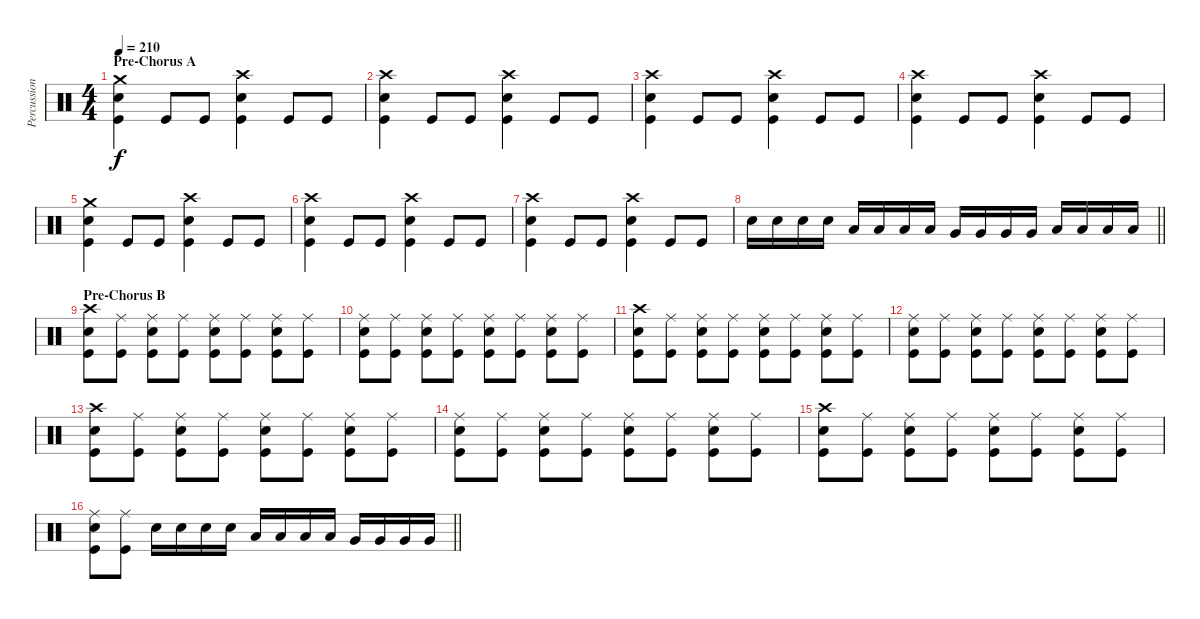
\track ("Percussion" "Percussion") {instrument percussion}
\staff {score}
\articulation defaults
\ts (4 4)
\section ("" "Pre-Chorus A")
\tempo 210
\clef neutral
\ks c
("Crash medium (hit)" "Electric Snare (hit)" "Kick (hit)").4{dy f} "Kick (hit)".8 "Kick (hit)".8 ("Crash high (hit)" "Electric Snare (hit)" "Kick (hit)").4 "Kick (hit)".8 "Kick (hit)".8 |
("Crash high (hit)" "Electric Snare (hit)" "Kick (hit)").4 "Kick (hit)".8 "Kick (hit)".8 ("Crash high (hit)" "Electric Snare (hit)" "Kick (hit)").4 "Kick (hit)".8 "Kick (hit)".8 |
("Crash high (hit)" "Electric Snare (hit)" "Kick (hit)").4 "Kick (hit)".8 "Kick (hit)".8 ("Crash high (hit)" "Electric Snare (hit)" "Kick (hit)").4 "Kick (hit)".8 "Kick (hit)".8 |
("Crash high (hit)" "Electric Snare (hit)" "Kick (hit)").4 "Kick (hit)".8 "Kick (hit)".8 ("Crash high (hit)" "Electric Snare (hit)" "Kick (hit)").4 "Kick (hit)".8 "Kick (hit)".8 |
("Crash medium (hit)" "Electric Snare (hit)" "Kick (hit)").4 "Kick (hit)".8 "Kick (hit)".8 ("Crash high (hit)" "Electric Snare (hit)" "Kick (hit)").4 "Kick (hit)".8 "Kick (hit)".8 |
("Crash high (hit)" "Electric Snare (hit)" "Kick (hit)").4 "Kick (hit)".8 "Kick (hit)".8 ("Crash high (hit)" "Electric Snare (hit)" "Kick (hit)").4 "Kick (hit)".8 "Kick (hit)".8 |
("Crash high (hit)" "Electric Snare (hit)" "Kick (hit)").4 "Kick (hit)".8 "Kick (hit)".8 ("Crash high (hit)" "Electric Snare (hit)" "Kick (hit)").4 "Kick (hit)".8 "Kick (hit)".8 |
\barLineRight lightlight "Electric Snare (hit)".16 "Electric Snare (hit)".16 "Electric Snare (hit)".16 "Electric Snare (hit)".16 "Low Tom (hit)".16 "Low Tom (hit)".16 "Low Tom (hit)".16 "Low Tom (hit)".16 "Very Low Tom (hit)".16 "Very Low Tom (hit)".16 "Very Low Tom (hit)".16 "Very Low Tom (hit)".16 "Low Floor Tom (hit)".16 "Low Floor Tom (hit)".16 "Low Floor Tom (hit)".16 "Low Floor Tom (hit)".16
|
\section ("" "Pre-Chorus B")
("Crash high (hit)" "Electric Snare (hit)" "Kick (hit)").8 ("Ride (middle)" "Kick (hit)").8 ("Ride (middle)" "Electric Snare (hit)" "Kick (hit)").8 ("Ride (middle)" "Kick (hit)").8 ("Ride (middle)" "Electric Snare (hit)" "Kick (hit)").8 ("Ride (middle)" "Kick (hit)").8 ("Ride (middle)" "Electric Snare (hit)" "Kick (hit)").8 ("Ride (middle)" "Kick (hit)").8 |
("Ride (middle)" "Electric Snare (hit)" "Kick (hit)").8 ("Ride (middle)" "Kick (hit)").8 ("Ride (middle)" "Electric Snare (hit)" "Kick (hit)").8 ("Ride (middle)" "Kick (hit)").8 ("Ride (middle)" "Electric Snare (hit)" "Kick (hit)").8 ("Ride (middle)" "Kick (hit)").8 ("Ride (middle)" "Electric Snare (hit)" "Kick (hit)").8 ("Ride (middle)" "Kick (hit)").8 |
("Crash high (hit)" "Electric Snare (hit)" "Kick (hit)").8 ("Ride (middle)" "Kick (hit)").8 ("Ride (middle)" "Electric Snare (hit)" "Kick (hit)").8 ("Ride (middle)" "Kick (hit)").8 ("Ride (middle)" "Electric Snare (hit)" "Kick (hit)").8 ("Ride (middle)" "Kick (hit)").8 ("Ride (middle)" "Electric Snare (hit)" "Kick (hit)").8 ("Ride (middle)" "Kick (hit)").8 |
("Ride (middle)" "Electric Snare (hit)" "Kick (hit)").8 ("Ride (middle)" "Kick (hit)").8 ("Ride (middle)" "Electric Snare (hit)" "Kick (hit)").8 ("Ride (middle)" "Kick (hit)").8 ("Ride (middle)" "Electric Snare (hit)" "Kick (hit)").8 ("Ride (middle)" "Kick (hit)").8 ("Ride (middle)" "Electric Snare (hit)" "Kick (hit)").8 ("Ride (middle)" "Kick (hit)").8 |
("Crash high (hit)" "Electric Snare (hit)" "Kick (hit)").8 ("Ride (middle)" "Kick (hit)").8 ("Ride (middle)" "Electric Snare (hit)" "Kick (hit)").8 ("Ride (middle)" "Kick (hit)").8 ("Ride (middle)" "Electric Snare (hit)" "Kick (hit)").8 ("Ride (middle)" "Kick (hit)").8 ("Ride (middle)" "Electric Snare (hit)" "Kick (hit)").8 ("Ride (middle)" "Kick (hit)").8 |
("Ride (middle)" "Electric Snare (hit)" "Kick (hit)").8 ("Ride (middle)" "Kick (hit)").8 ("Ride (middle)" "Electric Snare (hit)" "Kick (hit)").8 ("Ride (middle)" "Kick (hit)").8 ("Ride (middle)" "Electric Snare (hit)" "Kick (hit)").8 ("Ride (middle)" "Kick (hit)").8 ("Ride (middle)" "Electric Snare (hit)" "Kick (hit)").8 ("Ride (middle)" "Kick (hit)").8 |
("Crash high (hit)" "Electric Snare (hit)" "Kick (hit)").8 ("Ride (middle)" "Kick (hit)").8 ("Ride (middle)" "Electric Snare (hit)" "Kick (hit)").8 ("Ride (middle)" "Kick (hit)").8 ("Ride (middle)" "Electric Snare (hit)" "Kick (hit)").8 ("Ride (middle)" "Kick (hit)").8 ("Ride (middle)" "Electric Snare (hit)" "Kick (hit)").8 ("Ride (middle)" "Kick (hit)").8 |
\barLineRight lightlight
("Ride (middle)" "Electric Snare (hit)" "Kick (hit)").8 ("Ride (middle)" "Kick (hit)").8 "Electric Snare (hit)".16 "Electric Snare (hit)".16 "Electric Snare (hit)".16 "Electric Snare (hit)".16 "Low Tom (hit)".16 "Low Tom (hit)".16 "Low Tom (hit)".16 "Low Tom (hit)".16 "Very Low Tom (hit)".16 "Very Low Tom (hit)".16 "Very Low Tom (hit)".16 "Very Low Tom (hit)".16
